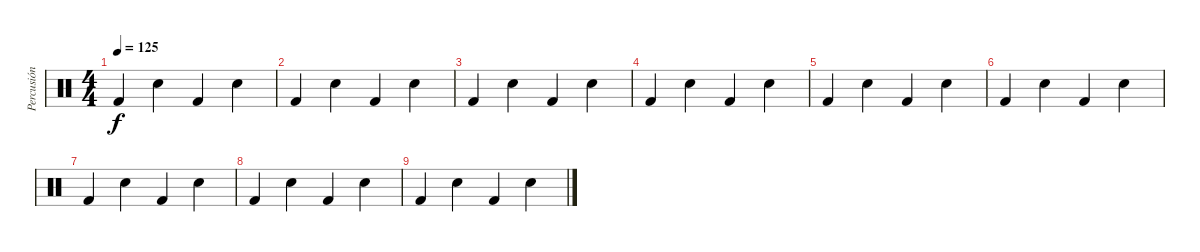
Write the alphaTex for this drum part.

\track ("Percusión" "Percusión") {instrument percussion}
\staff {score}
\articulation defaults
\ts (4 4)
\tempo 125
\clef neutral
\ks c "Kick (hit) 2".4{dy f} "Electric Snare (hit)".4 "Kick (hit) 2".4 "Electric Snare (hit)".4
|
"Kick (hit) 2".4 "Electric Snare (hit)".4 "Kick (hit) 2".4 "Electric Snare (hit)".4 |
"Kick (hit) 2".4 "Electric Snare (hit)".4 "Kick (hit) 2".4 "Electric Snare (hit)".4 |
"Kick (hit) 2".4 "Electric Snare (hit)".4 "Kick (hit) 2".4 "Electric Snare (hit)".4 |
"Kick (hit) 2".4 "Electric Snare (hit)".4 "Kick (hit) 2".4 "Electric Snare (hit)".4 |
"Kick (hit) 2".4 "Electric Snare (hit)".4 "Kick (hit) 2".4 "Electric Snare (hit)".4 |
"Kick (hit) 2".4 "Electric Snare (hit)".4 "Kick (hit) 2".4 "Electric Snare (hit)".4 |
"Kick (hit) 2".4 "Electric Snare (hit)".4 "Kick (hit) 2".4 "Electric Snare (hit)".4 |
"Kick (hit) 2".4 "Electric Snare (hit)".4 "Kick (hit) 2".4 "Electric Snare (hit)".4
